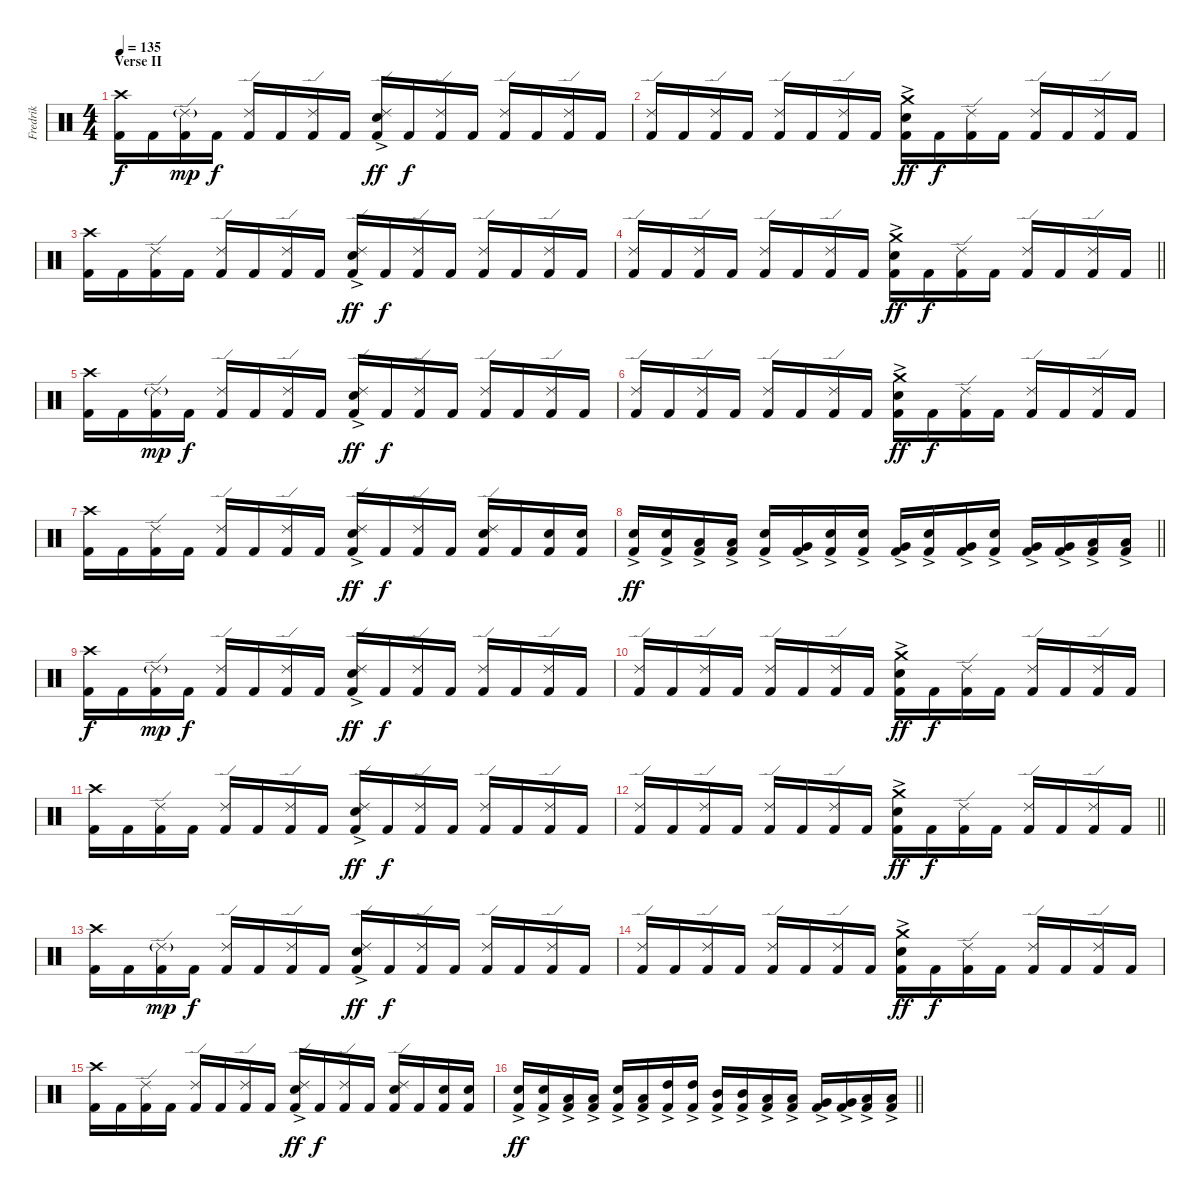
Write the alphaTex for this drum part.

\track ("Fredrik" "Fredrik") {instrument percussion}
\staff {score}
\articulation defaults
\ts (4 4)
\section ("" "Verse II")
\tempo 135
\clef neutral
\ks c
("Kick (hit) 2" "Crash high (hit)").16{dy f} "Kick (hit) 2".16 ("Kick (hit) 2" "Ride (edge) 2"{g}).16{dy mp} "Kick (hit) 2".16{dy f} ("Kick (hit) 2" "Ride (edge) 2").16 "Kick (hit) 2".16 ("Kick (hit) 2" "Ride (edge) 2").16 "Kick (hit) 2".16 ("Kick (hit) 2" "Snare (hit) 2"{ac} "Ride (edge) 2").16{dy ff} "Kick (hit) 2".16{dy f} ("Kick (hit) 2" "Ride (edge) 2").16 "Kick (hit) 2".16 ("Kick (hit) 2" "Ride (edge) 2").16 "Kick (hit) 2".16 ("Kick (hit) 2" "Ride (edge) 2").16 "Kick (hit) 2".16 |
("Kick (hit) 2" "Ride (edge) 2").16 "Kick (hit) 2".16 ("Kick (hit) 2" "Ride (edge) 2").16 "Kick (hit) 2".16 ("Kick (hit) 2" "Ride (edge) 2").16 "Kick (hit) 2".16 ("Kick (hit) 2" "Ride (edge) 2").16 "Kick (hit) 2".16 ("Kick (hit) 2" "Snare (hit) 2"{ac} "Crash medium (hit)").16{dy ff} "Kick (hit) 2".16{dy f} ("Kick (hit) 2" "Ride (edge) 2").16 "Kick (hit) 2".16 ("Kick (hit) 2" "Ride (edge) 2").16 "Kick (hit) 2".16 ("Kick (hit) 2" "Ride (edge) 2").16 "Kick (hit) 2".16 |
("Kick (hit) 2" "Crash high (hit)").16 "Kick (hit) 2".16 ("Kick (hit) 2" "Ride (edge) 2").16 "Kick (hit) 2".16 ("Kick (hit) 2" "Ride (edge) 2").16 "Kick (hit) 2".16 ("Kick (hit) 2" "Ride (edge) 2").16 "Kick (hit) 2".16 ("Kick (hit) 2" "Snare (hit) 2"{ac} "Ride (edge) 2").16{dy ff} "Kick (hit) 2".16{dy f} ("Kick (hit) 2" "Ride (edge) 2").16 "Kick (hit) 2".16 ("Kick (hit) 2" "Ride (edge) 2").16 "Kick (hit) 2".16 ("Kick (hit) 2" "Ride (edge) 2").16 "Kick (hit) 2".16 |
\barLineRight lightlight
("Kick (hit) 2" "Ride (edge) 2").16 "Kick (hit) 2".16 ("Kick (hit) 2" "Ride (edge) 2").16 "Kick (hit) 2".16 ("Kick (hit) 2" "Ride (edge) 2").16 "Kick (hit) 2".16 ("Kick (hit) 2" "Ride (edge) 2").16 "Kick (hit) 2".16 ("Kick (hit) 2" "Snare (hit) 2"{ac} "Crash medium (hit)").16{dy ff} "Kick (hit) 2".16{dy f} ("Kick (hit) 2" "Ride (edge) 2").16 "Kick (hit) 2".16 ("Kick (hit) 2" "Ride (edge) 2").16 "Kick (hit) 2".16 ("Kick (hit) 2" "Ride (edge) 2").16 "Kick (hit) 2".16 |
\section ("" "")
("Kick (hit) 2" "Crash high (hit)").16 "Kick (hit) 2".16 ("Kick (hit) 2" "Ride (edge) 2"{g}).16{dy mp} "Kick (hit) 2".16{dy f} ("Kick (hit) 2" "Ride (edge) 2").16 "Kick (hit) 2".16 ("Kick (hit) 2" "Ride (edge) 2").16 "Kick (hit) 2".16 ("Kick (hit) 2" "Snare (hit) 2"{ac} "Ride (edge) 2").16{dy ff} "Kick (hit) 2".16{dy f} ("Kick (hit) 2" "Ride (edge) 2").16 "Kick (hit) 2".16 ("Kick (hit) 2" "Ride (edge) 2").16 "Kick (hit) 2".16 ("Kick (hit) 2" "Ride (edge) 2").16 "Kick (hit) 2".16 |
("Kick (hit) 2" "Ride (edge) 2").16 "Kick (hit) 2".16 ("Kick (hit) 2" "Ride (edge) 2").16 "Kick (hit) 2".16 ("Kick (hit) 2" "Ride (edge) 2").16 "Kick (hit) 2".16 ("Kick (hit) 2" "Ride (edge) 2").16 "Kick (hit) 2".16 ("Kick (hit) 2" "Snare (hit) 2"{ac} "Crash medium (hit)").16{dy ff} "Kick (hit) 2".16{dy f} ("Kick (hit) 2" "Ride (edge) 2").16 "Kick (hit) 2".16 ("Kick (hit) 2" "Ride (edge) 2").16 "Kick (hit) 2".16 ("Kick (hit) 2" "Ride (edge) 2").16 "Kick (hit) 2".16 |
("Kick (hit) 2" "Crash high (hit)").16 "Kick (hit) 2".16 ("Kick (hit) 2" "Ride (edge) 2").16 "Kick (hit) 2".16 ("Kick (hit) 2" "Ride (edge) 2").16 "Kick (hit) 2".16 ("Kick (hit) 2" "Ride (edge) 2").16 "Kick (hit) 2".16 ("Kick (hit) 2" "Snare (hit) 2"{ac} "Ride (edge) 2").16{dy ff} "Kick (hit) 2".16{dy f} ("Kick (hit) 2" "Ride (edge) 2").16 "Kick (hit) 2".16 ("Kick (hit) 2" "Snare (hit) 2" "Ride (edge) 2").16 "Kick (hit) 2".16 ("Kick (hit) 2" "Snare (hit) 2").16 ("Kick (hit) 2" "Snare (hit) 2").16 |
\barLineRight lightlight
("Kick (hit) 2" "Snare (hit) 2"{ac}).16{dy ff} ("Kick (hit) 2" "Snare (hit) 2"{ac}).16 ("Kick (hit) 2" "Low Tom (hit)"{ac}).16 ("Kick (hit) 2" "Low Tom (hit)"{ac}).16 ("Kick (hit) 2" "Snare (hit) 2"{ac}).16 ("Kick (hit) 2" "Very Low Tom (hit)"{ac}).16 ("Kick (hit) 2" "Snare (hit) 2"{ac}).16 ("Kick (hit) 2" "Snare (hit) 2"{ac}).16 ("Kick (hit) 2" "Very Low Tom (hit)"{ac}).16 ("Kick (hit) 2" "Snare (hit) 2"{ac}).16 ("Kick (hit) 2" "Very Low Tom (hit)"{ac}).16 ("Kick (hit) 2" "Snare (hit) 2"{ac}).16 ("Kick (hit) 2" "Very Low Tom (hit)"{ac}).16 ("Kick (hit) 2" "Very Low Tom (hit)"{ac}).16 ("Kick (hit) 2" "Low Floor Tom (hit)"{ac}).16 ("Kick (hit) 2" "Low Floor Tom (hit)"{ac}).16 |
\section ("" "")
("Kick (hit) 2" "Crash high (hit)").16{dy f} "Kick (hit) 2".16 ("Kick (hit) 2" "Ride (edge) 2"{g}).16{dy mp} "Kick (hit) 2".16{dy f} ("Kick (hit) 2" "Ride (edge) 2").16 "Kick (hit) 2".16 ("Kick (hit) 2" "Ride (edge) 2").16 "Kick (hit) 2".16 ("Kick (hit) 2" "Snare (hit) 2"{ac} "Ride (edge) 2").16{dy ff} "Kick (hit) 2".16{dy f} ("Kick (hit) 2" "Ride (edge) 2").16 "Kick (hit) 2".16 ("Kick (hit) 2" "Ride (edge) 2").16 "Kick (hit) 2".16 ("Kick (hit) 2" "Ride (edge) 2").16 "Kick (hit) 2".16 |
("Kick (hit) 2" "Ride (edge) 2").16 "Kick (hit) 2".16 ("Kick (hit) 2" "Ride (edge) 2").16 "Kick (hit) 2".16 ("Kick (hit) 2" "Ride (edge) 2").16 "Kick (hit) 2".16 ("Kick (hit) 2" "Ride (edge) 2").16 "Kick (hit) 2".16 ("Kick (hit) 2" "Snare (hit) 2"{ac} "Crash medium (hit)").16{dy ff} "Kick (hit) 2".16{dy f} ("Kick (hit) 2" "Ride (edge) 2").16 "Kick (hit) 2".16 ("Kick (hit) 2" "Ride (edge) 2").16 "Kick (hit) 2".16 ("Kick (hit) 2" "Ride (edge) 2").16 "Kick (hit) 2".16 |
("Kick (hit) 2" "Crash high (hit)").16 "Kick (hit) 2".16 ("Kick (hit) 2" "Ride (edge) 2").16 "Kick (hit) 2".16 ("Kick (hit) 2" "Ride (edge) 2").16 "Kick (hit) 2".16 ("Kick (hit) 2" "Ride (edge) 2").16 "Kick (hit) 2".16 ("Kick (hit) 2" "Snare (hit) 2"{ac} "Ride (edge) 2").16{dy ff} "Kick (hit) 2".16{dy f} ("Kick (hit) 2" "Ride (edge) 2").16 "Kick (hit) 2".16 ("Kick (hit) 2" "Ride (edge) 2").16 "Kick (hit) 2".16 ("Kick (hit) 2" "Ride (edge) 2").16 "Kick (hit) 2".16 |
\barLineRight lightlight
("Kick (hit) 2" "Ride (edge) 2").16 "Kick (hit) 2".16 ("Kick (hit) 2" "Ride (edge) 2").16 "Kick (hit) 2".16 ("Kick (hit) 2" "Ride (edge) 2").16 "Kick (hit) 2".16 ("Kick (hit) 2" "Ride (edge) 2").16 "Kick (hit) 2".16 ("Kick (hit) 2" "Snare (hit) 2"{ac} "Crash medium (hit)").16{dy ff} "Kick (hit) 2".16{dy f} ("Kick (hit) 2" "Ride (edge) 2").16 "Kick (hit) 2".16 ("Kick (hit) 2" "Ride (edge) 2").16 "Kick (hit) 2".16 ("Kick (hit) 2" "Ride (edge) 2").16 "Kick (hit) 2".16 |
\section ("" "")
("Kick (hit) 2" "Crash high (hit)").16 "Kick (hit) 2".16 ("Kick (hit) 2" "Ride (edge) 2"{g}).16{dy mp} "Kick (hit) 2".16{dy f} ("Kick (hit) 2" "Ride (edge) 2").16 "Kick (hit) 2".16 ("Kick (hit) 2" "Ride (edge) 2").16 "Kick (hit) 2".16 ("Kick (hit) 2" "Snare (hit) 2"{ac} "Ride (edge) 2").16{dy ff} "Kick (hit) 2".16{dy f} ("Kick (hit) 2" "Ride (edge) 2").16 "Kick (hit) 2".16 ("Kick (hit) 2" "Ride (edge) 2").16 "Kick (hit) 2".16 ("Kick (hit) 2" "Ride (edge) 2").16 "Kick (hit) 2".16 |
("Kick (hit) 2" "Ride (edge) 2").16 "Kick (hit) 2".16 ("Kick (hit) 2" "Ride (edge) 2").16 "Kick (hit) 2".16 ("Kick (hit) 2" "Ride (edge) 2").16 "Kick (hit) 2".16 ("Kick (hit) 2" "Ride (edge) 2").16 "Kick (hit) 2".16 ("Kick (hit) 2" "Snare (hit) 2"{ac} "Crash medium (hit)").16{dy ff} "Kick (hit) 2".16{dy f} ("Kick (hit) 2" "Ride (edge) 2").16 "Kick (hit) 2".16 ("Kick (hit) 2" "Ride (edge) 2").16 "Kick (hit) 2".16 ("Kick (hit) 2" "Ride (edge) 2").16 "Kick (hit) 2".16 |
("Kick (hit) 2" "Crash high (hit)").16 "Kick (hit) 2".16 ("Kick (hit) 2" "Ride (edge) 2").16 "Kick (hit) 2".16 ("Kick (hit) 2" "Ride (edge) 2").16 "Kick (hit) 2".16 ("Kick (hit) 2" "Ride (edge) 2").16 "Kick (hit) 2".16 ("Kick (hit) 2" "Snare (hit) 2"{ac} "Ride (edge) 2").16{dy ff} "Kick (hit) 2".16{dy f} ("Kick (hit) 2" "Ride (edge) 2").16 "Kick (hit) 2".16 ("Kick (hit) 2" "Snare (hit) 2" "Ride (edge) 2").16 "Kick (hit) 2".16 ("Kick (hit) 2" "Snare (hit) 2").16 ("Kick (hit) 2" "Snare (hit) 2").16 |
\barLineRight lightlight
("Kick (hit) 2" "Snare (hit) 2"{ac}).16{dy ff} ("Kick (hit) 2" "Snare (hit) 2"{ac}).16 ("Kick (hit) 2" "Low Tom (hit)"{ac}).16 ("Kick (hit) 2" "Low Tom (hit)"{ac}).16 ("Kick (hit) 2" "Snare (hit) 2"{ac}).16 ("Kick (hit) 2" "Low Tom (hit)"{ac}).16 ("Kick (hit) 2" "High Tom (hit)"{ac}).16 ("Kick (hit) 2" "High Tom (hit)"{ac}).16 ("Kick (hit) 2" "Mid Tom (hit)"{ac}).16 ("Kick (hit) 2" "Mid Tom (hit)"{ac}).16 ("Kick (hit) 2" "Low Tom (hit)"{ac}).16 ("Kick (hit) 2" "Low Tom (hit)"{ac}).16 ("Kick (hit) 2" "Very Low Tom (hit)"{ac}).16 ("Kick (hit) 2" "Very Low Tom (hit)"{ac}).16 ("Kick (hit) 2" "Low Floor Tom (hit)"{ac}).16 ("Kick (hit) 2" "Low Floor Tom (hit)"{ac}).16
